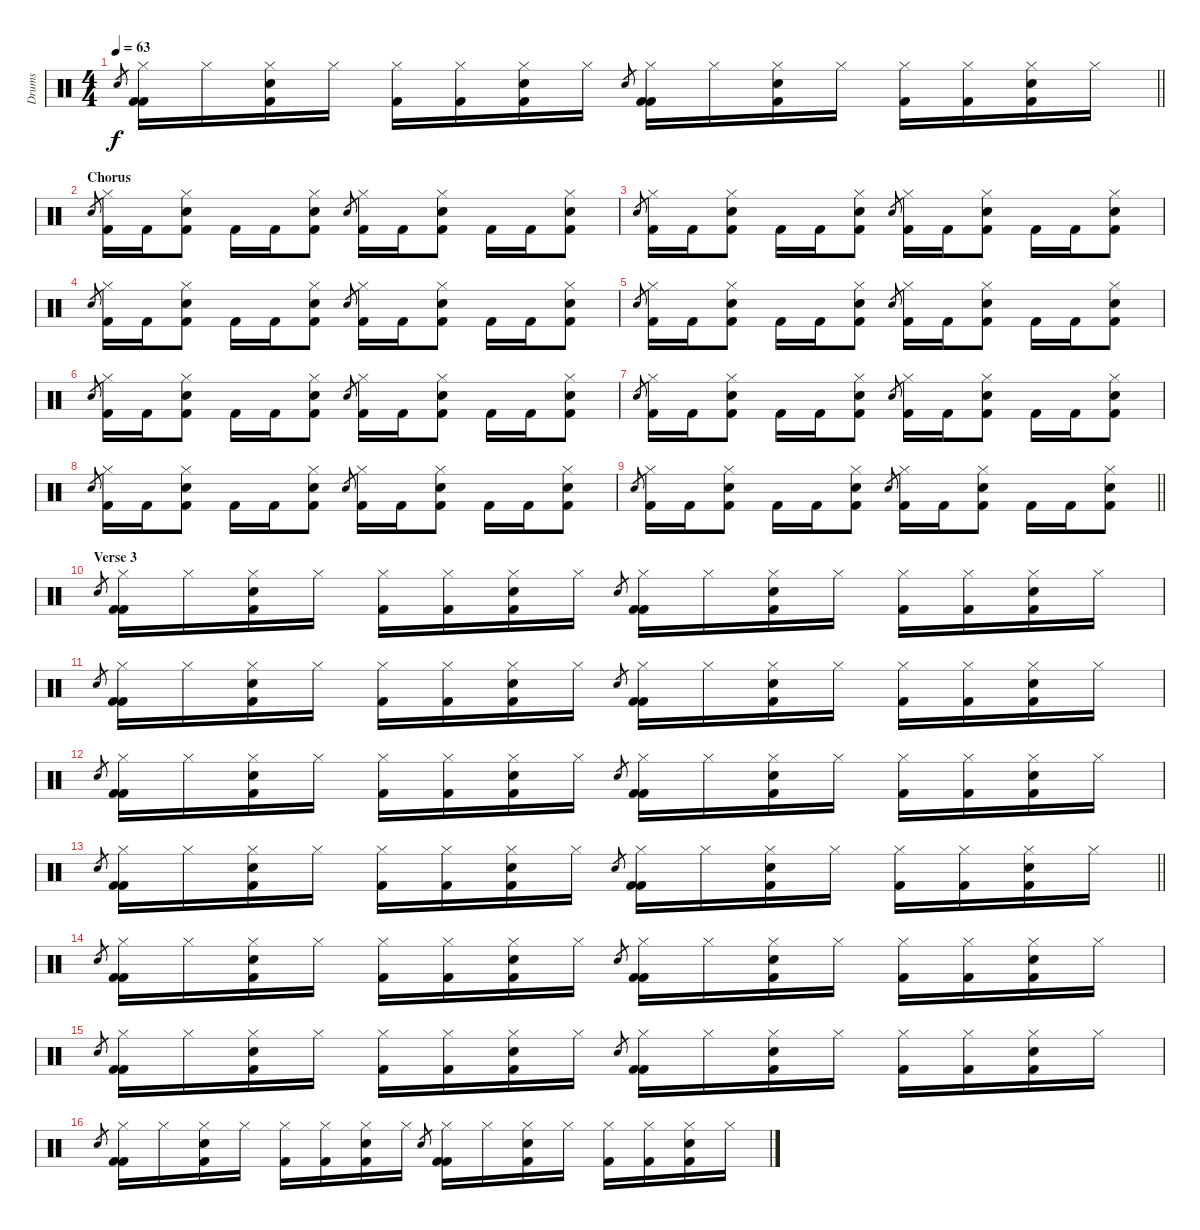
\track ("Drums" "Drums") {instrument percussion}
\staff {score}
\articulation defaults
\ts (4 4)
\tempo 63
\clef neutral
\barLineRight lightlight
\ks c "Snare (hit) 2".8{gr dy f}
("Kick (hit) 2" "Hi-Hat (closed)" "Kick (hit) 2").16 "Hi-Hat (closed)".16 ("Snare (hit) 2" "Hi-Hat (closed)" "Kick (hit) 2").16 "Hi-Hat (closed)".16 ("Hi-Hat (closed)" "Kick (hit) 2").16 ("Hi-Hat (closed)" "Kick (hit) 2").16 ("Snare (hit) 2" "Hi-Hat (closed)" "Kick (hit) 2").16 "Hi-Hat (closed)".16 "Snare (hit) 2".8{gr} ("Kick (hit) 2" "Hi-Hat (closed)" "Kick (hit) 2").16 "Hi-Hat (closed)".16 ("Snare (hit) 2" "Hi-Hat (closed)" "Kick (hit) 2").16 "Hi-Hat (closed)".16 ("Hi-Hat (closed)" "Kick (hit) 2").16 ("Hi-Hat (closed)" "Kick (hit) 2").16 ("Snare (hit) 2" "Hi-Hat (closed)" "Kick (hit) 2").16 "Hi-Hat (closed)".16 |
\section ("" "Chorus")
"Snare (hit) 2".8{gr} ("Kick (hit) 2" "Hi-Hat (closed)").16 "Kick (hit) 2".16 ("Snare (hit) 2" "Hi-Hat (closed)" "Kick (hit) 2").8 "Kick (hit) 2".16 "Kick (hit) 2".16 ("Snare (hit) 2" "Hi-Hat (closed)" "Kick (hit) 2").8 "Snare (hit) 2".8{gr} ("Kick (hit) 2" "Hi-Hat (closed)").16 "Kick (hit) 2".16 ("Snare (hit) 2" "Hi-Hat (closed)" "Kick (hit) 2").8 "Kick (hit) 2".16 "Kick (hit) 2".16 ("Snare (hit) 2" "Hi-Hat (closed)" "Kick (hit) 2").8 |
"Snare (hit) 2".8{gr} ("Kick (hit) 2" "Hi-Hat (closed)").16 "Kick (hit) 2".16 ("Snare (hit) 2" "Hi-Hat (closed)" "Kick (hit) 2").8 "Kick (hit) 2".16 "Kick (hit) 2".16 ("Snare (hit) 2" "Hi-Hat (closed)" "Kick (hit) 2").8 "Snare (hit) 2".8{gr} ("Kick (hit) 2" "Hi-Hat (closed)").16 "Kick (hit) 2".16 ("Snare (hit) 2" "Hi-Hat (closed)" "Kick (hit) 2").8 "Kick (hit) 2".16 "Kick (hit) 2".16 ("Snare (hit) 2" "Hi-Hat (closed)" "Kick (hit) 2").8 |
"Snare (hit) 2".8{gr} ("Kick (hit) 2" "Hi-Hat (closed)").16 "Kick (hit) 2".16 ("Snare (hit) 2" "Hi-Hat (closed)" "Kick (hit) 2").8 "Kick (hit) 2".16 "Kick (hit) 2".16 ("Snare (hit) 2" "Hi-Hat (closed)" "Kick (hit) 2").8 "Snare (hit) 2".8{gr} ("Kick (hit) 2" "Hi-Hat (closed)").16 "Kick (hit) 2".16 ("Snare (hit) 2" "Hi-Hat (closed)" "Kick (hit) 2").8 "Kick (hit) 2".16 "Kick (hit) 2".16 ("Snare (hit) 2" "Hi-Hat (closed)" "Kick (hit) 2").8 |
"Snare (hit) 2".8{gr} ("Kick (hit) 2" "Hi-Hat (closed)").16 "Kick (hit) 2".16 ("Snare (hit) 2" "Hi-Hat (closed)" "Kick (hit) 2").8 "Kick (hit) 2".16 "Kick (hit) 2".16 ("Snare (hit) 2" "Hi-Hat (closed)" "Kick (hit) 2").8 "Snare (hit) 2".8{gr} ("Kick (hit) 2" "Hi-Hat (closed)").16 "Kick (hit) 2".16 ("Snare (hit) 2" "Hi-Hat (closed)" "Kick (hit) 2").8 "Kick (hit) 2".16 "Kick (hit) 2".16 ("Snare (hit) 2" "Hi-Hat (closed)" "Kick (hit) 2").8 |
"Snare (hit) 2".8{gr} ("Kick (hit) 2" "Hi-Hat (closed)").16 "Kick (hit) 2".16 ("Snare (hit) 2" "Hi-Hat (closed)" "Kick (hit) 2").8 "Kick (hit) 2".16 "Kick (hit) 2".16 ("Snare (hit) 2" "Hi-Hat (closed)" "Kick (hit) 2").8 "Snare (hit) 2".8{gr} ("Kick (hit) 2" "Hi-Hat (closed)").16 "Kick (hit) 2".16 ("Snare (hit) 2" "Hi-Hat (closed)" "Kick (hit) 2").8 "Kick (hit) 2".16 "Kick (hit) 2".16 ("Snare (hit) 2" "Hi-Hat (closed)" "Kick (hit) 2").8 |
"Snare (hit) 2".8{gr} ("Kick (hit) 2" "Hi-Hat (closed)").16 "Kick (hit) 2".16 ("Snare (hit) 2" "Hi-Hat (closed)" "Kick (hit) 2").8 "Kick (hit) 2".16 "Kick (hit) 2".16 ("Snare (hit) 2" "Hi-Hat (closed)" "Kick (hit) 2").8 "Snare (hit) 2".8{gr} ("Kick (hit) 2" "Hi-Hat (closed)").16 "Kick (hit) 2".16 ("Snare (hit) 2" "Hi-Hat (closed)" "Kick (hit) 2").8 "Kick (hit) 2".16 "Kick (hit) 2".16 ("Snare (hit) 2" "Hi-Hat (closed)" "Kick (hit) 2").8 |
"Snare (hit) 2".8{gr} ("Kick (hit) 2" "Hi-Hat (closed)").16 "Kick (hit) 2".16 ("Snare (hit) 2" "Hi-Hat (closed)" "Kick (hit) 2").8 "Kick (hit) 2".16 "Kick (hit) 2".16 ("Snare (hit) 2" "Hi-Hat (closed)" "Kick (hit) 2").8 "Snare (hit) 2".8{gr} ("Kick (hit) 2" "Hi-Hat (closed)").16 "Kick (hit) 2".16 ("Snare (hit) 2" "Hi-Hat (closed)" "Kick (hit) 2").8 "Kick (hit) 2".16 "Kick (hit) 2".16 ("Snare (hit) 2" "Hi-Hat (closed)" "Kick (hit) 2").8 |
\barLineRight lightlight "Snare (hit) 2".8{gr}
("Kick (hit) 2" "Hi-Hat (closed)").16 "Kick (hit) 2".16 ("Snare (hit) 2" "Hi-Hat (closed)" "Kick (hit) 2").8 "Kick (hit) 2".16 "Kick (hit) 2".16 ("Snare (hit) 2" "Hi-Hat (closed)" "Kick (hit) 2").8 "Snare (hit) 2".8{gr} ("Kick (hit) 2" "Hi-Hat (closed)").16 "Kick (hit) 2".16 ("Snare (hit) 2" "Hi-Hat (closed)" "Kick (hit) 2").8 "Kick (hit) 2".16 "Kick (hit) 2".16 ("Snare (hit) 2" "Hi-Hat (closed)" "Kick (hit) 2").8 |
\section ("" "Verse 3")
"Snare (hit) 2".8{gr} ("Kick (hit) 2" "Hi-Hat (closed)" "Kick (hit) 2").16 "Hi-Hat (closed)".16 ("Snare (hit) 2" "Hi-Hat (closed)" "Kick (hit) 2").16 "Hi-Hat (closed)".16 ("Hi-Hat (closed)" "Kick (hit) 2").16 ("Hi-Hat (closed)" "Kick (hit) 2").16 ("Snare (hit) 2" "Hi-Hat (closed)" "Kick (hit) 2").16 "Hi-Hat (closed)".16 "Snare (hit) 2".8{gr} ("Kick (hit) 2" "Hi-Hat (closed)" "Kick (hit) 2").16 "Hi-Hat (closed)".16 ("Snare (hit) 2" "Hi-Hat (closed)" "Kick (hit) 2").16 "Hi-Hat (closed)".16 ("Hi-Hat (closed)" "Kick (hit) 2").16 ("Hi-Hat (closed)" "Kick (hit) 2").16 ("Snare (hit) 2" "Hi-Hat (closed)" "Kick (hit) 2").16 "Hi-Hat (closed)".16 |
"Snare (hit) 2".8{gr} ("Kick (hit) 2" "Hi-Hat (closed)" "Kick (hit) 2").16 "Hi-Hat (closed)".16 ("Snare (hit) 2" "Hi-Hat (closed)" "Kick (hit) 2").16 "Hi-Hat (closed)".16 ("Hi-Hat (closed)" "Kick (hit) 2").16 ("Hi-Hat (closed)" "Kick (hit) 2").16 ("Snare (hit) 2" "Hi-Hat (closed)" "Kick (hit) 2").16 "Hi-Hat (closed)".16 "Snare (hit) 2".8{gr} ("Kick (hit) 2" "Hi-Hat (closed)" "Kick (hit) 2").16 "Hi-Hat (closed)".16 ("Snare (hit) 2" "Hi-Hat (closed)" "Kick (hit) 2").16 "Hi-Hat (closed)".16 ("Hi-Hat (closed)" "Kick (hit) 2").16 ("Hi-Hat (closed)" "Kick (hit) 2").16 ("Snare (hit) 2" "Hi-Hat (closed)" "Kick (hit) 2").16 "Hi-Hat (closed)".16 |
"Snare (hit) 2".8{gr} ("Kick (hit) 2" "Hi-Hat (closed)" "Kick (hit) 2").16 "Hi-Hat (closed)".16 ("Snare (hit) 2" "Hi-Hat (closed)" "Kick (hit) 2").16 "Hi-Hat (closed)".16 ("Hi-Hat (closed)" "Kick (hit) 2").16 ("Hi-Hat (closed)" "Kick (hit) 2").16 ("Snare (hit) 2" "Hi-Hat (closed)" "Kick (hit) 2").16 "Hi-Hat (closed)".16 "Snare (hit) 2".8{gr} ("Kick (hit) 2" "Hi-Hat (closed)" "Kick (hit) 2").16 "Hi-Hat (closed)".16 ("Snare (hit) 2" "Hi-Hat (closed)" "Kick (hit) 2").16 "Hi-Hat (closed)".16 ("Hi-Hat (closed)" "Kick (hit) 2").16 ("Hi-Hat (closed)" "Kick (hit) 2").16 ("Snare (hit) 2" "Hi-Hat (closed)" "Kick (hit) 2").16 "Hi-Hat (closed)".16 |
\barLineRight lightlight "Snare (hit) 2".8{gr}
("Kick (hit) 2" "Hi-Hat (closed)" "Kick (hit) 2").16 "Hi-Hat (closed)".16 ("Snare (hit) 2" "Hi-Hat (closed)" "Kick (hit) 2").16 "Hi-Hat (closed)".16 ("Hi-Hat (closed)" "Kick (hit) 2").16 ("Hi-Hat (closed)" "Kick (hit) 2").16 ("Snare (hit) 2" "Hi-Hat (closed)" "Kick (hit) 2").16 "Hi-Hat (closed)".16 "Snare (hit) 2".8{gr} ("Kick (hit) 2" "Hi-Hat (closed)" "Kick (hit) 2").16 "Hi-Hat (closed)".16 ("Snare (hit) 2" "Hi-Hat (closed)" "Kick (hit) 2").16 "Hi-Hat (closed)".16 ("Hi-Hat (closed)" "Kick (hit) 2").16 ("Hi-Hat (closed)" "Kick (hit) 2").16 ("Snare (hit) 2" "Hi-Hat (closed)" "Kick (hit) 2").16 "Hi-Hat (closed)".16 |
"Snare (hit) 2".8{gr} ("Kick (hit) 2" "Hi-Hat (closed)" "Kick (hit) 2").16 "Hi-Hat (closed)".16 ("Snare (hit) 2" "Hi-Hat (closed)" "Kick (hit) 2").16 "Hi-Hat (closed)".16 ("Hi-Hat (closed)" "Kick (hit) 2").16 ("Hi-Hat (closed)" "Kick (hit) 2").16 ("Snare (hit) 2" "Hi-Hat (closed)" "Kick (hit) 2").16 "Hi-Hat (closed)".16 "Snare (hit) 2".8{gr} ("Kick (hit) 2" "Hi-Hat (closed)" "Kick (hit) 2").16 "Hi-Hat (closed)".16 ("Snare (hit) 2" "Hi-Hat (closed)" "Kick (hit) 2").16 "Hi-Hat (closed)".16 ("Hi-Hat (closed)" "Kick (hit) 2").16 ("Hi-Hat (closed)" "Kick (hit) 2").16 ("Snare (hit) 2" "Hi-Hat (closed)" "Kick (hit) 2").16 "Hi-Hat (closed)".16 |
"Snare (hit) 2".8{gr} ("Kick (hit) 2" "Hi-Hat (closed)" "Kick (hit) 2").16 "Hi-Hat (closed)".16 ("Snare (hit) 2" "Hi-Hat (closed)" "Kick (hit) 2").16 "Hi-Hat (closed)".16 ("Hi-Hat (closed)" "Kick (hit) 2").16 ("Hi-Hat (closed)" "Kick (hit) 2").16 ("Snare (hit) 2" "Hi-Hat (closed)" "Kick (hit) 2").16 "Hi-Hat (closed)".16 "Snare (hit) 2".8{gr} ("Kick (hit) 2" "Hi-Hat (closed)" "Kick (hit) 2").16 "Hi-Hat (closed)".16 ("Snare (hit) 2" "Hi-Hat (closed)" "Kick (hit) 2").16 "Hi-Hat (closed)".16 ("Hi-Hat (closed)" "Kick (hit) 2").16 ("Hi-Hat (closed)" "Kick (hit) 2").16 ("Snare (hit) 2" "Hi-Hat (closed)" "Kick (hit) 2").16 "Hi-Hat (closed)".16 |
"Snare (hit) 2".8{gr} ("Kick (hit) 2" "Hi-Hat (closed)" "Kick (hit) 2").16 "Hi-Hat (closed)".16 ("Snare (hit) 2" "Hi-Hat (closed)" "Kick (hit) 2").16 "Hi-Hat (closed)".16 ("Hi-Hat (closed)" "Kick (hit) 2").16 ("Hi-Hat (closed)" "Kick (hit) 2").16 ("Snare (hit) 2" "Hi-Hat (closed)" "Kick (hit) 2").16 "Hi-Hat (closed)".16 "Snare (hit) 2".8{gr} ("Kick (hit) 2" "Hi-Hat (closed)" "Kick (hit) 2").16 "Hi-Hat (closed)".16 ("Snare (hit) 2" "Hi-Hat (closed)" "Kick (hit) 2").16 "Hi-Hat (closed)".16 ("Hi-Hat (closed)" "Kick (hit) 2").16 ("Hi-Hat (closed)" "Kick (hit) 2").16 ("Snare (hit) 2" "Hi-Hat (closed)" "Kick (hit) 2").16 "Hi-Hat (closed)".16
